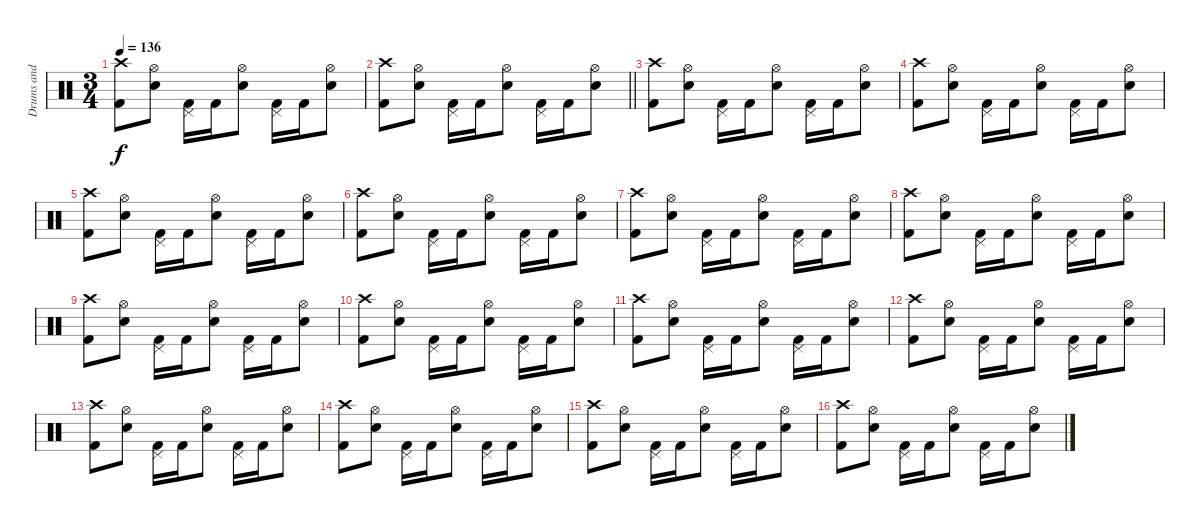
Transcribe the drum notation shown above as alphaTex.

\track ("Drums and percussion" "Drums and ") {instrument percussion}
\staff {score}
\articulation defaults
\ts (3 4)
\tempo 136
\clef neutral
\ks c
("Crash high (hit)" "Kick (hit) 2").8{dy f} ("Hi-Hat (open)" "Snare (hit) 2").8 ("Pedal Hi-Hat (hit)" "Kick (hit) 2").16 "Kick (hit) 2".16 ("Hi-Hat (open)" "Snare (hit) 2").8 ("Pedal Hi-Hat (hit)" "Kick (hit) 2").16 "Kick (hit) 2".16 ("Hi-Hat (open)" "Snare (hit) 2").8 |
\barLineRight lightlight
("Crash high (hit)" "Kick (hit) 2").8 ("Hi-Hat (open)" "Snare (hit) 2").8 ("Pedal Hi-Hat (hit)" "Kick (hit) 2").16 "Kick (hit) 2".16 ("Hi-Hat (open)" "Snare (hit) 2").8 ("Pedal Hi-Hat (hit)" "Kick (hit) 2").16 "Kick (hit) 2".16 ("Hi-Hat (open)" "Snare (hit) 2").8 |
("Crash high (hit)" "Kick (hit) 2").8 ("Hi-Hat (open)" "Snare (hit) 2").8 ("Pedal Hi-Hat (hit)" "Kick (hit) 2").16 "Kick (hit) 2".16 ("Hi-Hat (open)" "Snare (hit) 2").8 ("Pedal Hi-Hat (hit)" "Kick (hit) 2").16 "Kick (hit) 2".16 ("Hi-Hat (open)" "Snare (hit) 2").8 |
("Crash high (hit)" "Kick (hit) 2").8 ("Hi-Hat (open)" "Snare (hit) 2").8 ("Pedal Hi-Hat (hit)" "Kick (hit) 2").16 "Kick (hit) 2".16 ("Hi-Hat (open)" "Snare (hit) 2").8 ("Pedal Hi-Hat (hit)" "Kick (hit) 2").16 "Kick (hit) 2".16 ("Hi-Hat (open)" "Snare (hit) 2").8 |
("Crash high (hit)" "Kick (hit) 2").8 ("Hi-Hat (open)" "Snare (hit) 2").8 ("Pedal Hi-Hat (hit)" "Kick (hit) 2").16 "Kick (hit) 2".16 ("Hi-Hat (open)" "Snare (hit) 2").8 ("Pedal Hi-Hat (hit)" "Kick (hit) 2").16 "Kick (hit) 2".16 ("Hi-Hat (open)" "Snare (hit) 2").8 |
("Crash high (hit)" "Kick (hit) 2").8 ("Hi-Hat (open)" "Snare (hit) 2").8 ("Pedal Hi-Hat (hit)" "Kick (hit) 2").16 "Kick (hit) 2".16 ("Hi-Hat (open)" "Snare (hit) 2").8 ("Pedal Hi-Hat (hit)" "Kick (hit) 2").16 "Kick (hit) 2".16 ("Hi-Hat (open)" "Snare (hit) 2").8 |
("Crash high (hit)" "Kick (hit) 2").8 ("Hi-Hat (open)" "Snare (hit) 2").8 ("Pedal Hi-Hat (hit)" "Kick (hit) 2").16 "Kick (hit) 2".16 ("Hi-Hat (open)" "Snare (hit) 2").8 ("Pedal Hi-Hat (hit)" "Kick (hit) 2").16 "Kick (hit) 2".16 ("Hi-Hat (open)" "Snare (hit) 2").8 |
("Crash high (hit)" "Kick (hit) 2").8 ("Hi-Hat (open)" "Snare (hit) 2").8 ("Pedal Hi-Hat (hit)" "Kick (hit) 2").16 "Kick (hit) 2".16 ("Hi-Hat (open)" "Snare (hit) 2").8 ("Pedal Hi-Hat (hit)" "Kick (hit) 2").16 "Kick (hit) 2".16 ("Hi-Hat (open)" "Snare (hit) 2").8 |
("Crash high (hit)" "Kick (hit) 2").8 ("Hi-Hat (open)" "Snare (hit) 2").8 ("Pedal Hi-Hat (hit)" "Kick (hit) 2").16 "Kick (hit) 2".16 ("Hi-Hat (open)" "Snare (hit) 2").8 ("Pedal Hi-Hat (hit)" "Kick (hit) 2").16 "Kick (hit) 2".16 ("Hi-Hat (open)" "Snare (hit) 2").8 |
("Crash high (hit)" "Kick (hit) 2").8 ("Hi-Hat (open)" "Snare (hit) 2").8 ("Pedal Hi-Hat (hit)" "Kick (hit) 2").16 "Kick (hit) 2".16 ("Hi-Hat (open)" "Snare (hit) 2").8 ("Pedal Hi-Hat (hit)" "Kick (hit) 2").16 "Kick (hit) 2".16 ("Hi-Hat (open)" "Snare (hit) 2").8 |
("Crash high (hit)" "Kick (hit) 2").8 ("Hi-Hat (open)" "Snare (hit) 2").8 ("Pedal Hi-Hat (hit)" "Kick (hit) 2").16 "Kick (hit) 2".16 ("Hi-Hat (open)" "Snare (hit) 2").8 ("Pedal Hi-Hat (hit)" "Kick (hit) 2").16 "Kick (hit) 2".16 ("Hi-Hat (open)" "Snare (hit) 2").8 |
("Crash high (hit)" "Kick (hit) 2").8 ("Hi-Hat (open)" "Snare (hit) 2").8 ("Pedal Hi-Hat (hit)" "Kick (hit) 2").16 "Kick (hit) 2".16 ("Hi-Hat (open)" "Snare (hit) 2").8 ("Pedal Hi-Hat (hit)" "Kick (hit) 2").16 "Kick (hit) 2".16 ("Hi-Hat (open)" "Snare (hit) 2").8 |
("Crash high (hit)" "Kick (hit) 2").8 ("Hi-Hat (open)" "Snare (hit) 2").8 ("Pedal Hi-Hat (hit)" "Kick (hit) 2").16 "Kick (hit) 2".16 ("Hi-Hat (open)" "Snare (hit) 2").8 ("Pedal Hi-Hat (hit)" "Kick (hit) 2").16 "Kick (hit) 2".16 ("Hi-Hat (open)" "Snare (hit) 2").8 |
("Crash high (hit)" "Kick (hit) 2").8 ("Hi-Hat (open)" "Snare (hit) 2").8 ("Pedal Hi-Hat (hit)" "Kick (hit) 2").16 "Kick (hit) 2".16 ("Hi-Hat (open)" "Snare (hit) 2").8 ("Pedal Hi-Hat (hit)" "Kick (hit) 2").16 "Kick (hit) 2".16 ("Hi-Hat (open)" "Snare (hit) 2").8 |
("Crash high (hit)" "Kick (hit) 2").8 ("Hi-Hat (open)" "Snare (hit) 2").8 ("Pedal Hi-Hat (hit)" "Kick (hit) 2").16 "Kick (hit) 2".16 ("Hi-Hat (open)" "Snare (hit) 2").8 ("Pedal Hi-Hat (hit)" "Kick (hit) 2").16 "Kick (hit) 2".16 ("Hi-Hat (open)" "Snare (hit) 2").8 |
("Crash high (hit)" "Kick (hit) 2").8 ("Hi-Hat (open)" "Snare (hit) 2").8 ("Pedal Hi-Hat (hit)" "Kick (hit) 2").16 "Kick (hit) 2".16 ("Hi-Hat (open)" "Snare (hit) 2").8 ("Pedal Hi-Hat (hit)" "Kick (hit) 2").16 "Kick (hit) 2".16 ("Hi-Hat (open)" "Snare (hit) 2").8
